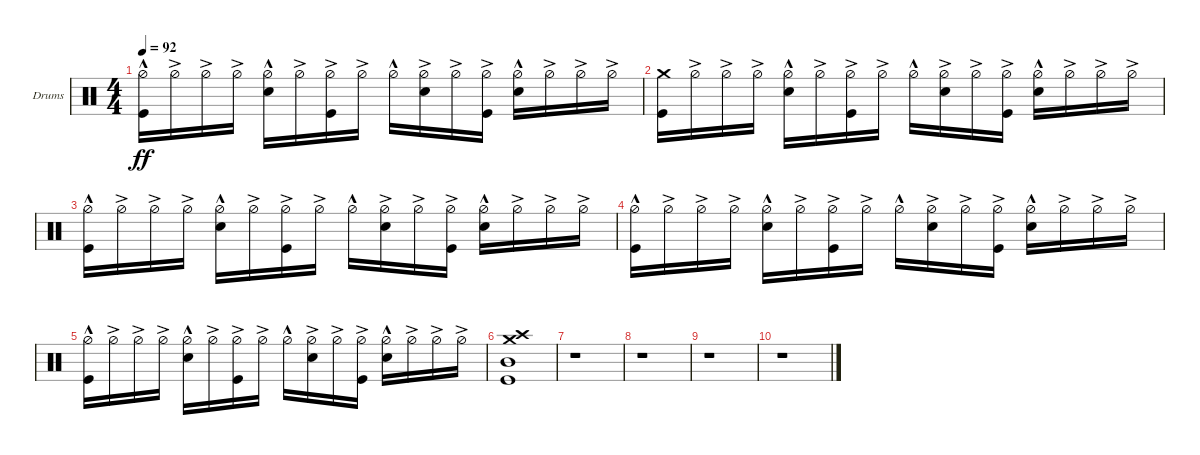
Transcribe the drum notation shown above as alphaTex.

\defaultSystemsLayout 4
\bracketExtendMode groupsimilarinstruments
\firstSystemTrackNameOrientation horizontal
\otherSystemsTrackNameOrientation horizontal
\track ("Drumkit" "Drums") {instrument percussion}
\staff {score}
\articulation defaults
\ts (4 4)
\tempo 92
\clef neutral
\ks c
("Kick (hit)" "Hi-Hat (half)"{hac}).16{dy ff} "Hi-Hat (half)"{ac}.16 "Hi-Hat (half)"{ac}.16 "Hi-Hat (half)"{ac}.16 ("Hi-Hat (half)"{hac} "Snare (hit) 2").16 "Hi-Hat (half)"{ac}.16 ("Hi-Hat (half)"{ac} "Kick (hit)").16 "Hi-Hat (half)"{ac}.16 "Hi-Hat (half)"{hac}.16 ("Hi-Hat (half)"{ac} "Snare (hit) 2").16 "Hi-Hat (half)"{ac}.16 ("Hi-Hat (half)"{ac} "Kick (hit)").16 ("Hi-Hat (half)"{hac} "Snare (hit) 2").16 "Hi-Hat (half)"{ac}.16 "Hi-Hat (half)"{ac}.16 "Hi-Hat (half)"{ac}.16 |
("Kick (hit)" "Crash medium (hit)").16 "Hi-Hat (half)"{ac}.16 "Hi-Hat (half)"{ac}.16 "Hi-Hat (half)"{ac}.16 ("Hi-Hat (half)"{hac} "Snare (hit) 2").16 "Hi-Hat (half)"{ac}.16 ("Hi-Hat (half)"{ac} "Kick (hit)").16 "Hi-Hat (half)"{ac}.16 "Hi-Hat (half)"{hac}.16 ("Hi-Hat (half)"{ac} "Snare (hit) 2").16 "Hi-Hat (half)"{ac}.16 ("Hi-Hat (half)"{ac} "Kick (hit)").16 ("Hi-Hat (half)"{hac} "Snare (hit) 2").16 "Hi-Hat (half)"{ac}.16 "Hi-Hat (half)"{ac}.16 "Hi-Hat (half)"{ac}.16 |
("Kick (hit)" "Hi-Hat (half)"{hac}).16 "Hi-Hat (half)"{ac}.16 "Hi-Hat (half)"{ac}.16 "Hi-Hat (half)"{ac}.16 ("Hi-Hat (half)"{hac} "Snare (hit) 2").16 "Hi-Hat (half)"{ac}.16 ("Hi-Hat (half)"{ac} "Kick (hit)").16 "Hi-Hat (half)"{ac}.16 "Hi-Hat (half)"{hac}.16 ("Hi-Hat (half)"{ac} "Snare (hit) 2").16 "Hi-Hat (half)"{ac}.16 ("Hi-Hat (half)"{ac} "Kick (hit)").16 ("Hi-Hat (half)"{hac} "Snare (hit) 2").16 "Hi-Hat (half)"{ac}.16 "Hi-Hat (half)"{ac}.16 "Hi-Hat (half)"{ac}.16 |
("Kick (hit)" "Hi-Hat (half)"{hac}).16 "Hi-Hat (half)"{ac}.16 "Hi-Hat (half)"{ac}.16 "Hi-Hat (half)"{ac}.16 ("Hi-Hat (half)"{hac} "Snare (hit) 2").16 "Hi-Hat (half)"{ac}.16 ("Hi-Hat (half)"{ac} "Kick (hit)").16 "Hi-Hat (half)"{ac}.16 "Hi-Hat (half)"{hac}.16 ("Hi-Hat (half)"{ac} "Snare (hit) 2").16 "Hi-Hat (half)"{ac}.16 ("Hi-Hat (half)"{ac} "Kick (hit)").16 ("Hi-Hat (half)"{hac} "Snare (hit) 2").16 "Hi-Hat (half)"{ac}.16 "Hi-Hat (half)"{ac}.16 "Hi-Hat (half)"{ac}.16 |
("Kick (hit)" "Hi-Hat (half)"{hac}).16 "Hi-Hat (half)"{ac}.16 "Hi-Hat (half)"{ac}.16 "Hi-Hat (half)"{ac}.16 ("Hi-Hat (half)"{hac} "Snare (hit) 2").16 "Hi-Hat (half)"{ac}.16 ("Hi-Hat (half)"{ac} "Kick (hit)").16 "Hi-Hat (half)"{ac}.16 "Hi-Hat (half)"{hac}.16 ("Hi-Hat (half)"{ac} "Snare (hit) 2").16 "Hi-Hat (half)"{ac}.16 ("Hi-Hat (half)"{ac} "Kick (hit)").16 ("Hi-Hat (half)"{hac} "Snare (hit) 2").16 "Hi-Hat (half)"{ac}.16 "Hi-Hat (half)"{ac}.16 "Hi-Hat (half)"{ac}.16 |
("Kick (hit)" "Crash medium (hit)" "Crash high (hit)" "Mid Tom (hit)").1 |
r.1 |
r.1 |
r.1 |
r.1
